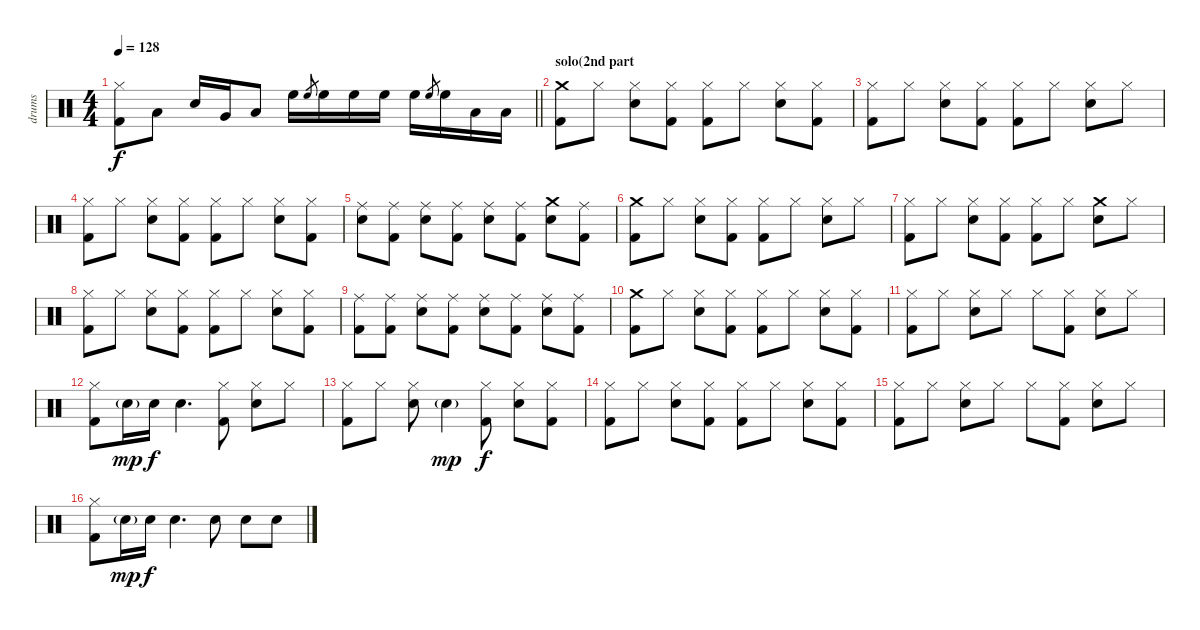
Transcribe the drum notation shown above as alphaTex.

\track ("drums" "drums") {instrument percussion}
\staff {score}
\articulation defaults
\ts (4 4)
\tempo 128
\clef neutral
\barLineRight lightlight
\ks c
("Hi-Hat (closed)" "Kick (hit) 2").8{dy f} "Low Floor Tom (hit)".8 "Snare (hit) 2".16 "Very Low Tom (hit)".16 "Low Floor Tom (hit)".8 "High Floor Tom (hit)".16 "High Floor Tom (hit)".8{gr} "High Floor Tom (hit)".16 "High Floor Tom (hit)".16 "High Floor Tom (hit)".16 "High Floor Tom (hit)".16 "High Floor Tom (hit)".8{gr} "High Floor Tom (hit)".16 "Low Floor Tom (hit)".16 "Low Floor Tom (hit)".16 |
\section ("" "solo(2nd part")
("Crash medium (hit)" "Kick (hit) 2").8 "Hi-Hat (closed)".8 ("Hi-Hat (closed)" "Snare (hit) 2").8 ("Hi-Hat (closed)" "Kick (hit) 2").8 ("Hi-Hat (closed)" "Kick (hit) 2").8 "Hi-Hat (closed)".8 ("Hi-Hat (closed)" "Snare (hit) 2").8 ("Hi-Hat (closed)" "Kick (hit) 2").8 |
("Hi-Hat (closed)" "Kick (hit) 2").8 "Hi-Hat (closed)".8 ("Hi-Hat (closed)" "Snare (hit) 2").8 ("Hi-Hat (closed)" "Kick (hit) 2").8 ("Hi-Hat (closed)" "Kick (hit) 2").8 "Hi-Hat (closed)".8 ("Hi-Hat (closed)" "Snare (hit) 2").8 "Hi-Hat (closed)".8 |
("Hi-Hat (closed)" "Kick (hit) 2").8 "Hi-Hat (closed)".8 ("Hi-Hat (closed)" "Snare (hit) 2").8 ("Hi-Hat (closed)" "Kick (hit) 2").8 ("Hi-Hat (closed)" "Kick (hit) 2").8 "Hi-Hat (closed)".8 ("Hi-Hat (closed)" "Snare (hit) 2").8 ("Hi-Hat (closed)" "Kick (hit) 2").8 |
("Ride (middle)" "Snare (hit) 2").8 ("Ride (middle)" "Kick (hit) 2").8 ("Ride (middle)" "Snare (hit) 2").8 ("Ride (middle)" "Kick (hit) 2").8 ("Ride (middle)" "Snare (hit) 2").8 ("Ride (middle)" "Kick (hit) 2").8 ("Crash medium (hit)" "Snare (hit) 2").8 ("Ride (middle)" "Kick (hit) 2").8 |
("Crash medium (hit)" "Kick (hit) 2").8 "Hi-Hat (closed)".8 ("Hi-Hat (closed)" "Snare (hit) 2").8 ("Hi-Hat (closed)" "Kick (hit) 2").8 ("Hi-Hat (closed)" "Kick (hit) 2").8 "Hi-Hat (closed)".8 ("Hi-Hat (closed)" "Snare (hit) 2").8 "Hi-Hat (closed)".8 |
("Hi-Hat (closed)" "Kick (hit) 2").8 "Hi-Hat (closed)".8 ("Hi-Hat (closed)" "Snare (hit) 2").8 ("Hi-Hat (closed)" "Kick (hit) 2").8 ("Hi-Hat (closed)" "Kick (hit) 2").8 "Hi-Hat (closed)".8 ("Crash medium (hit)" "Snare (hit) 2").8 "Hi-Hat (closed)".8 |
("Hi-Hat (closed)" "Kick (hit) 2").8 "Hi-Hat (closed)".8 ("Hi-Hat (closed)" "Snare (hit) 2").8 ("Hi-Hat (closed)" "Kick (hit) 2").8 ("Hi-Hat (closed)" "Kick (hit) 2").8 "Hi-Hat (closed)".8 ("Hi-Hat (closed)" "Snare (hit) 2").8 ("Hi-Hat (closed)" "Kick (hit) 2").8 |
("Ride (middle)" "Kick (hit) 2").8 ("Ride (middle)" "Kick (hit) 2").8 ("Ride (middle)" "Snare (hit) 2").8 ("Ride (middle)" "Kick (hit) 2").8 ("Ride (middle)" "Snare (hit) 2").8 ("Ride (middle)" "Kick (hit) 2").8 ("Ride (middle)" "Snare (hit) 2").8 ("Ride (middle)" "Kick (hit) 2").8 |
("Crash medium (hit)" "Kick (hit) 2").8 "Hi-Hat (closed)".8 ("Hi-Hat (closed)" "Snare (hit) 2").8 ("Hi-Hat (closed)" "Kick (hit) 2").8 ("Hi-Hat (closed)" "Kick (hit) 2").8 "Hi-Hat (closed)".8 ("Hi-Hat (closed)" "Snare (hit) 2").8 ("Hi-Hat (closed)" "Kick (hit) 2").8 |
("Hi-Hat (closed)" "Kick (hit) 2").8 "Hi-Hat (closed)".8 ("Hi-Hat (closed)" "Snare (hit) 2").8 "Hi-Hat (closed)".8 "Hi-Hat (closed)".8 ("Hi-Hat (closed)" "Kick (hit) 2").8 ("Hi-Hat (closed)" "Snare (hit) 2").8 "Hi-Hat (closed)".8 |
("Hi-Hat (closed)" "Kick (hit) 2").8 "Snare (hit) 2"{g}.16{dy mp} "Snare (hit) 2".16{dy f} "Snare (hit) 2".4{d} ("Hi-Hat (closed)" "Kick (hit) 2").8 ("Hi-Hat (closed)" "Snare (hit) 2").8 "Hi-Hat (closed)".8 |
("Hi-Hat (closed)" "Kick (hit) 2").8 "Hi-Hat (closed)".8 ("Hi-Hat (closed)" "Snare (hit) 2").8 "Snare (hit) 2"{g}.4{dy mp} ("Hi-Hat (closed)" "Kick (hit) 2").8{dy f} ("Hi-Hat (closed)" "Snare (hit) 2").8 ("Hi-Hat (closed)" "Kick (hit) 2").8 |
("Hi-Hat (closed)" "Kick (hit) 2").8 "Hi-Hat (closed)".8 ("Hi-Hat (closed)" "Snare (hit) 2").8 ("Hi-Hat (closed)" "Kick (hit) 2").8 ("Hi-Hat (closed)" "Kick (hit) 2").8 "Hi-Hat (closed)".8 ("Hi-Hat (closed)" "Snare (hit) 2").8 ("Hi-Hat (closed)" "Kick (hit) 2").8 |
("Hi-Hat (closed)" "Kick (hit) 2").8 "Hi-Hat (closed)".8 ("Hi-Hat (closed)" "Snare (hit) 2").8 "Hi-Hat (closed)".8 "Hi-Hat (closed)".8 ("Hi-Hat (closed)" "Kick (hit) 2").8 ("Hi-Hat (closed)" "Snare (hit) 2").8 "Hi-Hat (closed)".8 |
("Hi-Hat (closed)" "Kick (hit) 2").8 "Snare (hit) 2"{g}.16{dy mp} "Snare (hit) 2".16{dy f} "Snare (hit) 2".4{d} "Snare (hit) 2".8 "Snare (hit) 2".8 "Snare (hit) 2".8
